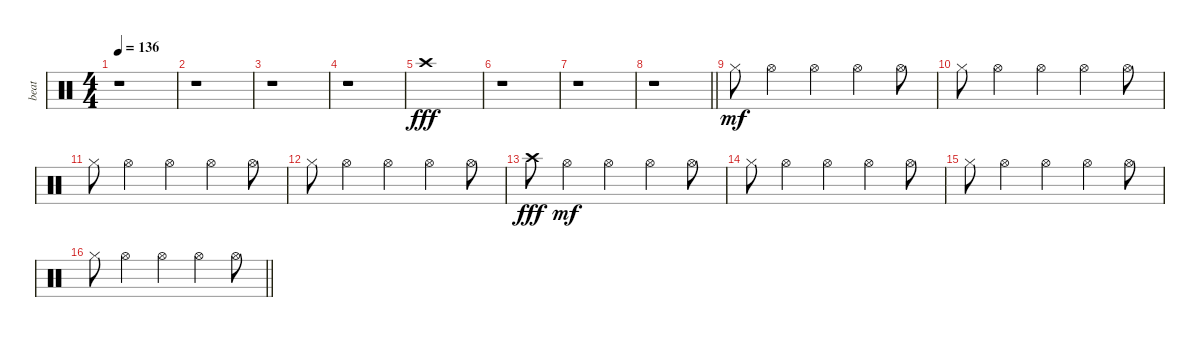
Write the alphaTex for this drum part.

\track ("beat" "beat") {instrument percussion}
\staff {score}
\articulation defaults
\ts (4 4)
\tempo 136
\clef neutral
\ks c
r.1{dy fff} |
r.1 |
r.1 |
r.1 |
"Crash high (hit)".1 |
r.1 |
r.1 |
\barLineRight lightlight
r.1 |
"Hi-Hat (closed)".8{dy mf} "Hi-Hat (open)".4 "Hi-Hat (open)".4 "Hi-Hat (open)".4 "Hi-Hat (open)".8 |
"Hi-Hat (closed)".8 "Hi-Hat (open)".4 "Hi-Hat (open)".4 "Hi-Hat (open)".4 "Hi-Hat (open)".8 |
"Hi-Hat (closed)".8 "Hi-Hat (open)".4 "Hi-Hat (open)".4 "Hi-Hat (open)".4 "Hi-Hat (open)".8 |
"Hi-Hat (closed)".8 "Hi-Hat (open)".4 "Hi-Hat (open)".4 "Hi-Hat (open)".4 "Hi-Hat (open)".8 |
"Crash high (hit)".8{dy fff} "Hi-Hat (open)".4{dy mf} "Hi-Hat (open)".4 "Hi-Hat (open)".4 "Hi-Hat (open)".8 |
"Hi-Hat (closed)".8 "Hi-Hat (open)".4 "Hi-Hat (open)".4 "Hi-Hat (open)".4 "Hi-Hat (open)".8 |
"Hi-Hat (closed)".8 "Hi-Hat (open)".4 "Hi-Hat (open)".4 "Hi-Hat (open)".4 "Hi-Hat (open)".8 |
\barLineRight lightlight "Hi-Hat (closed)".8 "Hi-Hat (open)".4 "Hi-Hat (open)".4 "Hi-Hat (open)".4 "Hi-Hat (open)".8
